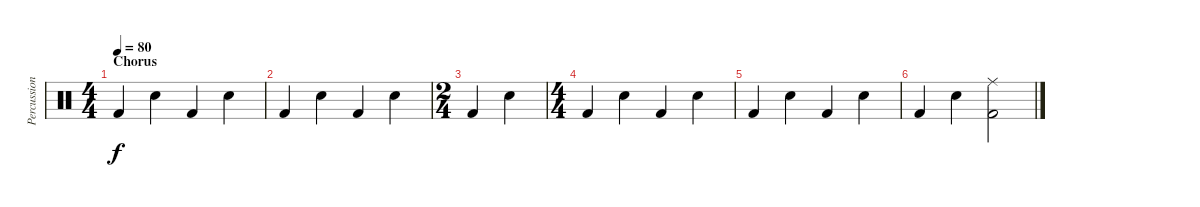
\track ("Percussion" "Percussion") {instrument percussion}
\staff {score}
\articulation defaults
\ts (4 4)
\section ("" "Chorus")
\tempo 80
\clef neutral
\ks c "Kick (hit) 2".4{dy f} "Snare (hit) 2".4 "Kick (hit) 2".4 "Snare (hit) 2".4
|
"Kick (hit) 2".4 "Snare (hit) 2".4 "Kick (hit) 2".4 "Snare (hit) 2".4 |
\ts (2 4)
"Kick (hit) 2".4 "Snare (hit) 2".4 |
\ts (4 4)
"Kick (hit) 2".4 "Snare (hit) 2".4 "Kick (hit) 2".4 "Snare (hit) 2".4 |
"Kick (hit) 2".4 "Snare (hit) 2".4 "Kick (hit) 2".4 "Snare (hit) 2".4 |
"Kick (hit) 2".4 "Snare (hit) 2".4 ("Ride (middle)" "Kick (hit) 2").2
